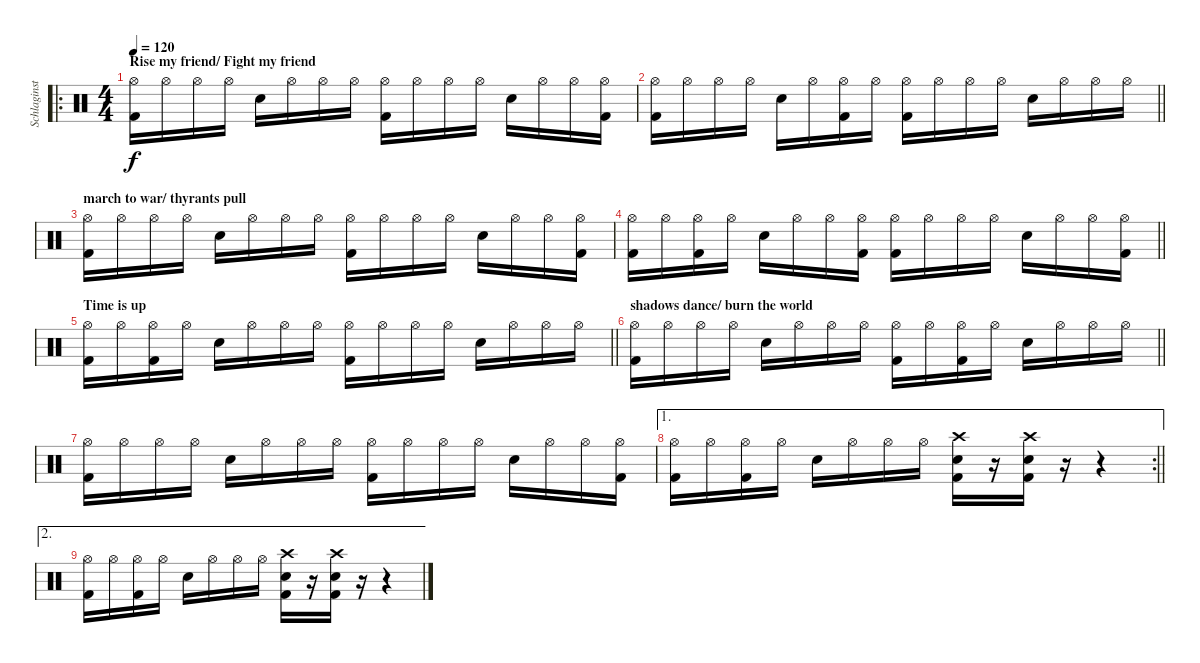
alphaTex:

\track ("Schlaginstrumente - Auswahl" "Schlaginst") {instrument percussion}
\staff {score}
\articulation defaults
\ro
\ts (4 4)
\section ("" "Rise my friend/ Fight my friend")
\tempo 120
\clef neutral
\ks c
("Hi-Hat (open)" "Kick (hit) 2").16{dy f} "Hi-Hat (open)".16 "Hi-Hat (open)".16 "Hi-Hat (open)".16 "Electric Snare (hit)".16 "Hi-Hat (open)".16 "Hi-Hat (open)".16 "Hi-Hat (open)".16 ("Hi-Hat (open)" "Kick (hit) 2").16 "Hi-Hat (open)".16 "Hi-Hat (open)".16 "Hi-Hat (open)".16 "Electric Snare (hit)".16 "Hi-Hat (open)".16 "Hi-Hat (open)".16 ("Hi-Hat (open)" "Kick (hit) 2").16 |
\barLineRight lightlight
("Hi-Hat (open)" "Kick (hit) 2").16 "Hi-Hat (open)".16 "Hi-Hat (open)".16 "Hi-Hat (open)".16 "Electric Snare (hit)".16 "Hi-Hat (open)".16 ("Hi-Hat (open)" "Kick (hit) 2").16 "Hi-Hat (open)".16 ("Hi-Hat (open)" "Kick (hit) 2").16 "Hi-Hat (open)".16 "Hi-Hat (open)".16 "Hi-Hat (open)".16 "Electric Snare (hit)".16 "Hi-Hat (open)".16 "Hi-Hat (open)".16 "Hi-Hat (open)".16 |
\section ("" "march to war/ thyrants pull")
("Hi-Hat (open)" "Kick (hit) 2").16 "Hi-Hat (open)".16 "Hi-Hat (open)".16 "Hi-Hat (open)".16 "Electric Snare (hit)".16 "Hi-Hat (open)".16 "Hi-Hat (open)".16 "Hi-Hat (open)".16 ("Hi-Hat (open)" "Kick (hit) 2").16 "Hi-Hat (open)".16 "Hi-Hat (open)".16 "Hi-Hat (open)".16 "Electric Snare (hit)".16 "Hi-Hat (open)".16 "Hi-Hat (open)".16 ("Hi-Hat (open)" "Kick (hit) 2").16 |
\barLineRight lightlight
("Hi-Hat (open)" "Kick (hit) 2").16 "Hi-Hat (open)".16 ("Hi-Hat (open)" "Kick (hit) 2").16 "Hi-Hat (open)".16 "Electric Snare (hit)".16 "Hi-Hat (open)".16 "Hi-Hat (open)".16 ("Hi-Hat (open)" "Kick (hit) 2").16 ("Hi-Hat (open)" "Kick (hit) 2").16 "Hi-Hat (open)".16 "Hi-Hat (open)".16 "Hi-Hat (open)".16 "Electric Snare (hit)".16 "Hi-Hat (open)".16 "Hi-Hat (open)".16 ("Hi-Hat (open)" "Kick (hit) 2").16 |
\section ("" "Time is up")
\barLineRight lightlight
("Hi-Hat (open)" "Kick (hit) 2").16 "Hi-Hat (open)".16 ("Hi-Hat (open)" "Kick (hit) 2").16 "Hi-Hat (open)".16 "Electric Snare (hit)".16 "Hi-Hat (open)".16 "Hi-Hat (open)".16 "Hi-Hat (open)".16 ("Hi-Hat (open)" "Kick (hit) 2").16 "Hi-Hat (open)".16 "Hi-Hat (open)".16 "Hi-Hat (open)".16 "Electric Snare (hit)".16 "Hi-Hat (open)".16 "Hi-Hat (open)".16 "Hi-Hat (open)".16 |
\section ("" "shadows dance/ burn the world")
\barLineRight lightlight
("Hi-Hat (open)" "Kick (hit) 2").16 "Hi-Hat (open)".16 "Hi-Hat (open)".16 "Hi-Hat (open)".16 "Electric Snare (hit)".16 "Hi-Hat (open)".16 "Hi-Hat (open)".16 "Hi-Hat (open)".16 ("Hi-Hat (open)" "Kick (hit) 2").16 "Hi-Hat (open)".16 ("Hi-Hat (open)" "Kick (hit) 2").16 "Hi-Hat (open)".16 "Electric Snare (hit)".16 "Hi-Hat (open)".16 "Hi-Hat (open)".16 "Hi-Hat (open)".16 |
("Hi-Hat (open)" "Kick (hit) 2").16 "Hi-Hat (open)".16 "Hi-Hat (open)".16 "Hi-Hat (open)".16 "Electric Snare (hit)".16 "Hi-Hat (open)".16 "Hi-Hat (open)".16 "Hi-Hat (open)".16 ("Hi-Hat (open)" "Kick (hit) 2").16 "Hi-Hat (open)".16 "Hi-Hat (open)".16 "Hi-Hat (open)".16 "Electric Snare (hit)".16 "Hi-Hat (open)".16 "Hi-Hat (open)".16 ("Hi-Hat (open)" "Kick (hit) 2").16 |
\ae 1
\rc 2
\barLineRight lightlight
("Hi-Hat (open)" "Kick (hit) 2").16 "Hi-Hat (open)".16 ("Hi-Hat (open)" "Kick (hit) 2").16 "Hi-Hat (open)".16 "Electric Snare (hit)".16 "Hi-Hat (open)".16 "Hi-Hat (open)".16 "Hi-Hat (open)".16 ("Crash high (hit)" "Electric Snare (hit)" "Kick (hit) 2").16 r.16 ("Crash high (hit)" "Electric Snare (hit)" "Kick (hit) 2").16 r.16 r.4 |
\ae 2
("Hi-Hat (open)" "Kick (hit) 2").16 "Hi-Hat (open)".16 ("Hi-Hat (open)" "Kick (hit) 2").16 "Hi-Hat (open)".16 "Electric Snare (hit)".16 "Hi-Hat (open)".16 "Hi-Hat (open)".16 "Hi-Hat (open)".16 ("Crash high (hit)" "Electric Snare (hit)" "Kick (hit) 2").16 r.16 ("Crash high (hit)" "Electric Snare (hit)" "Kick (hit) 2").16 r.16 r.4
